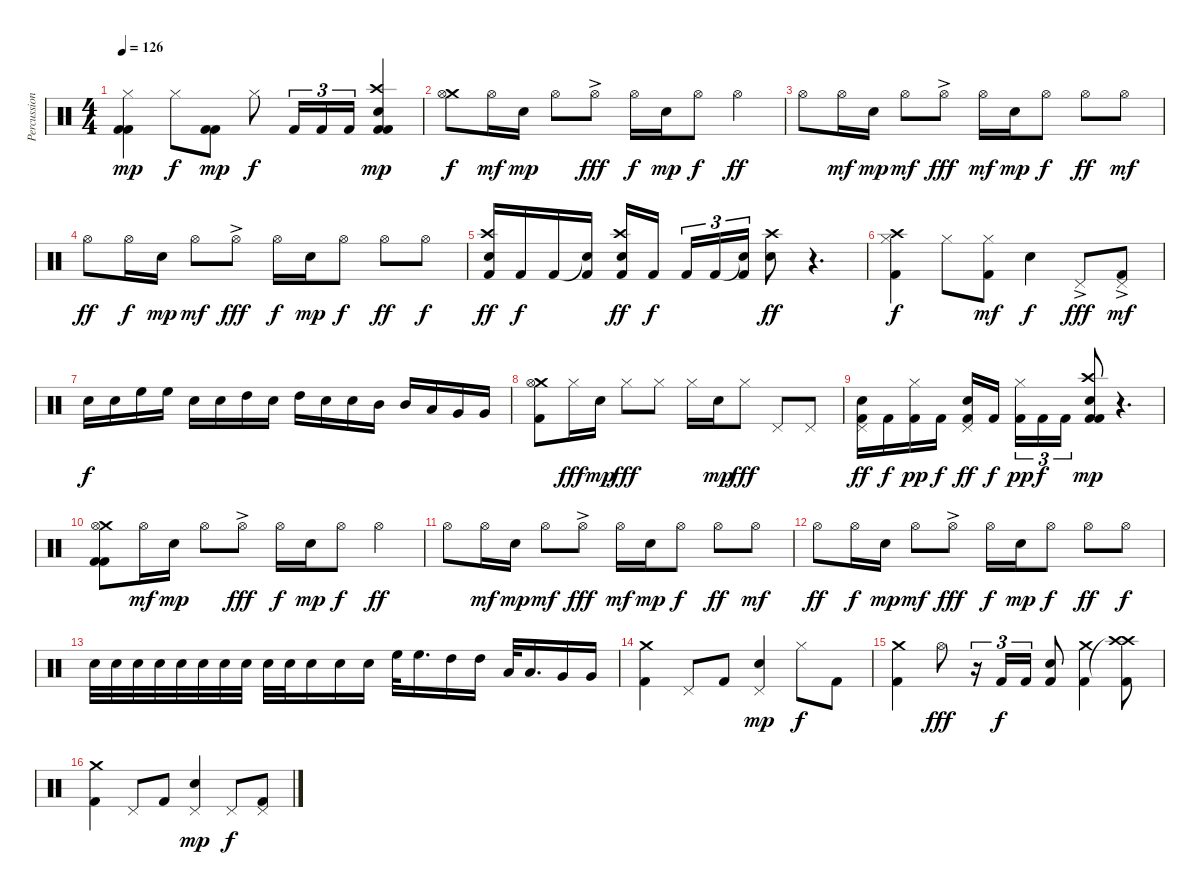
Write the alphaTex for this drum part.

\track ("Percussion" "Percussion") {instrument percussion}
\staff {score}
\articulation defaults
\ts (4 4)
\tempo 126
\clef neutral
\ks c
("Hi-Hat (closed)" "Kick (hit) 2" "Kick (hit) 2").4{dy mp} "Hi-Hat (closed)".8{dy f} ("Kick (hit) 2" "Kick (hit) 2").8{dy mp} "Hi-Hat (closed)".8{dy f} "Kick (hit) 2".16{tu (3 2)} "Kick (hit) 2".16{tu (3 2)} "Kick (hit) 2".16{tu (3 2)} ("Crash high (hit)" "Electric Snare (hit)" "Kick (hit) 2" "Kick (hit) 2").4{dy mp} |
("Crash medium (hit)" "Hi-Hat (open)").8{dy f} "Hi-Hat (open)".16{dy mf} "Electric Snare (hit)".16{dy mp} "Hi-Hat (open)".8 "Hi-Hat (open)"{ac}.8{dy fff} "Hi-Hat (open)".16{dy f} "Electric Snare (hit)".16{dy mp} "Hi-Hat (open)".8{dy f} "Hi-Hat (open)".4{dy ff} |
"Hi-Hat (open)".8 "Hi-Hat (open)".16{dy mf} "Electric Snare (hit)".16{dy mp} "Hi-Hat (open)".8{dy mf} "Hi-Hat (open)"{ac}.8{dy fff} "Hi-Hat (open)".16{dy mf} "Electric Snare (hit)".16{dy mp} "Hi-Hat (open)".8{dy f} "Hi-Hat (open)".8{dy ff} "Hi-Hat (open)".8{dy mf} |
"Hi-Hat (open)".8{dy ff} "Hi-Hat (open)".16{dy f} "Electric Snare (hit)".16{dy mp} "Hi-Hat (open)".8{dy mf} "Hi-Hat (open)"{ac}.8{dy fff} "Hi-Hat (open)".16{dy f} "Electric Snare (hit)".16{dy mp} "Hi-Hat (open)".8{dy f} "Hi-Hat (open)".8{dy ff} "Hi-Hat (open)".8{dy f} |
("Crash high (hit)" "Electric Snare (hit)" "Kick (hit) 2").16{dy ff} "Kick (hit) 2".16{dy f} "Kick (hit) 2".16 ("Snare (hit)"{t} "Kick (hit) 2").16 ("Crash high (hit)" "Electric Snare (hit)" "Kick (hit) 2").16{dy ff} "Kick (hit) 2".16{dy f beam splitsecondary} "Kick (hit) 2".16{tu (3 2)} "Kick (hit) 2".16{tu (3 2)} ("Snare (hit)"{t} "Kick (hit) 2").16{tu (3 2)} ("Crash high (hit)" "Electric Snare (hit)").8{dy ff} r.4{d} |
("Crash high (hit)" "Hi-Hat (closed)" "Kick (hit) 2").4{dy f} "Hi-Hat (closed)".8 ("Hi-Hat (closed)" "Kick (hit) 2").8{dy mf} "Electric Snare (hit)".4{dy f} "Pedal Hi-Hat (hit)"{ac}.8{dy fff} ("Pedal Hi-Hat (hit)"{ac} "Kick (hit) 2").8{dy mf} |
"Electric Snare (hit)".16{dy f} "Electric Snare (hit)".16 "High Floor Tom (hit)".16 "High Floor Tom (hit)".16 "Electric Snare (hit)".16 "Electric Snare (hit)".16 "High Tom (hit)".16 "Electric Snare (hit)".16 "High Tom (hit)".16 "Electric Snare (hit)".16 "Electric Snare (hit)".16 "Mid Tom (hit)".16 "Mid Tom (hit)".16 "Low Tom (hit)".16 "Very Low Tom (hit)".16 "Very Low Tom (hit)".16 |
("Crash medium (hit)" "Hi-Hat (open)" "Kick (hit) 2").8 "Hi-Hat (closed)".16{dy fff} "Electric Snare (hit)".16{dy mp} "Hi-Hat (closed)".8{dy fff} "Hi-Hat (closed)".8 "Hi-Hat (closed)".16 "Electric Snare (hit)".16{dy mp} "Hi-Hat (closed)".8{dy fff} "Pedal Hi-Hat (hit)".8 "Pedal Hi-Hat (hit)".8 |
("Pedal Hi-Hat (hit)" "Electric Snare (hit)" "Kick (hit) 2").16{dy ff} "Kick (hit) 2".16{dy f} ("Hi-Hat (closed)" "Kick (hit) 2").16{dy pp} "Kick (hit) 2".16{dy f} ("Pedal Hi-Hat (hit)" "Electric Snare (hit)" "Kick (hit) 2").16{dy ff} "Kick (hit) 2".16{dy f beam splitsecondary} ("Hi-Hat (closed)" "Kick (hit) 2").16{tu (3 2) dy pp} "Kick (hit) 2".16{tu (3 2) dy f} "Kick (hit) 2".16{tu (3 2)} ("Crash high (hit)" "Electric Snare (hit)" "Kick (hit) 2" "Kick (hit) 2").8{dy mp} r.4{d} |
("Crash medium (hit)" "Hi-Hat (open)" "Kick (hit) 2" "Kick (hit) 2").8 "Hi-Hat (open)".16{dy mf} "Electric Snare (hit)".16{dy mp} "Hi-Hat (open)".8 "Hi-Hat (open)"{ac}.8{dy fff} "Hi-Hat (open)".16{dy f} "Electric Snare (hit)".16{dy mp} "Hi-Hat (open)".8{dy f} "Hi-Hat (open)".4{dy ff} |
"Hi-Hat (open)".8 "Hi-Hat (open)".16{dy mf} "Electric Snare (hit)".16{dy mp} "Hi-Hat (open)".8{dy mf} "Hi-Hat (open)"{ac}.8{dy fff} "Hi-Hat (open)".16{dy mf} "Electric Snare (hit)".16{dy mp} "Hi-Hat (open)".8{dy f} "Hi-Hat (open)".8{dy ff} "Hi-Hat (open)".8{dy mf} |
"Hi-Hat (open)".8{dy ff} "Hi-Hat (open)".16{dy f} "Electric Snare (hit)".16{dy mp} "Hi-Hat (open)".8{dy mf} "Hi-Hat (open)"{ac}.8{dy fff} "Hi-Hat (open)".16{dy f} "Electric Snare (hit)".16{dy mp} "Hi-Hat (open)".8{dy f} "Hi-Hat (open)".8{dy ff} "Hi-Hat (open)".8{dy f} |
"Electric Snare (hit)".32 "Electric Snare (hit)".32 "Electric Snare (hit)".32 "Electric Snare (hit)".32 "Electric Snare (hit)".32 "Electric Snare (hit)".32 "Electric Snare (hit)".32 "Electric Snare (hit)".32 "Electric Snare (hit)".32 "Electric Snare (hit)".32 "Electric Snare (hit)".16 "Electric Snare (hit)".16 "Electric Snare (hit)".16 "High Floor Tom (hit)".32 "High Floor Tom (hit)".16{d} "High Tom (hit)".16 "High Tom (hit)".16 "Low Tom (hit)".32 "Low Tom (hit)".16{d} "Very Low Tom (hit)".16 "Very Low Tom (hit)".16 |
("Crash medium (hit)" "Kick (hit) 2").4 "Pedal Hi-Hat (hit)".8 "Kick (hit) 2".8 ("Pedal Hi-Hat (hit)" "Electric Snare (hit)").4{dy mp} "Hi-Hat (closed)".8{dy f} "Kick (hit) 2".8 |
("Crash medium (hit)" "Kick (hit) 2").4 "Hi-Hat (open)".8{dy fff} r.16{tu (3 2)} "Kick (hit) 2".16{tu (3 2) dy f} "Kick (hit) 2".16{tu (3 2)} ("Electric Snare (hit)" "Kick (hit) 2").8 ("Crash medium (hit)" "Kick (hit) 2").4 ("Crash high (hit)" "Crash high (hit)"{t} "Kick (hit) 2").8 |
("Crash medium (hit)" "Kick (hit) 2").4 "Pedal Hi-Hat (hit)".8 "Kick (hit) 2".8 ("Pedal Hi-Hat (hit)" "Electric Snare (hit)").4{dy mp} "Pedal Hi-Hat (hit)".8{dy f} ("Pedal Hi-Hat (hit)" "Kick (hit) 2").8
